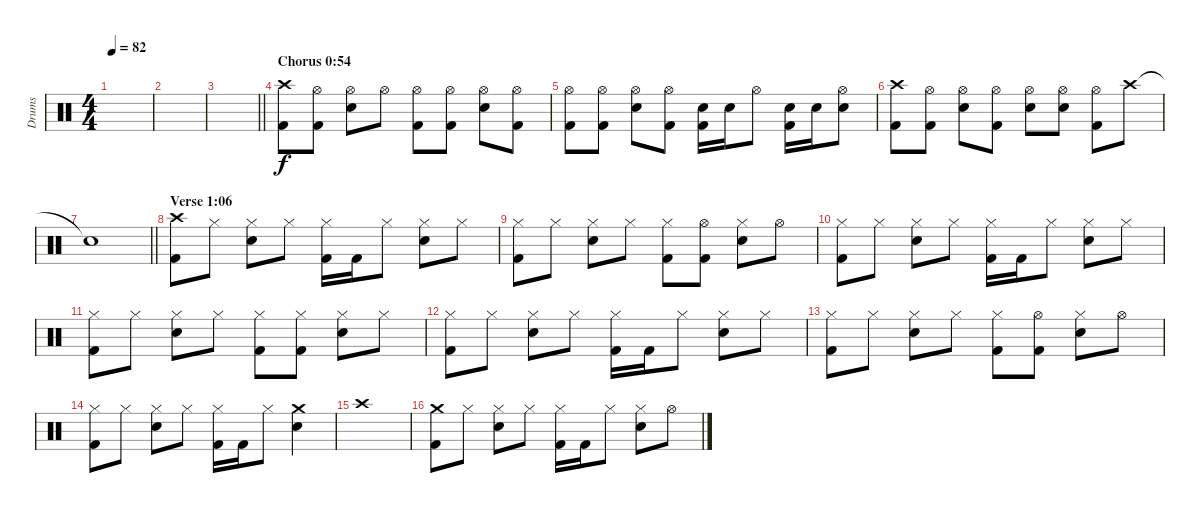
\track ("Drums" "Drums") {instrument percussion}
\staff {score}
\articulation defaults
\ts (4 4)
\tempo 82
\clef neutral
\ks c
|
|
\barLineRight lightlight
|
\section ("" "Chorus 0:54")
("Crash high (hit)" "Kick (hit) 2").8 ("Hi-Hat (open)" "Kick (hit) 2").8 ("Hi-Hat (open)" "Snare (hit) 2").8 "Hi-Hat (open)".8 ("Hi-Hat (open)" "Kick (hit) 2").8 ("Hi-Hat (open)" "Kick (hit) 2").8 ("Hi-Hat (open)" "Snare (hit) 2").8 ("Hi-Hat (open)" "Kick (hit) 2").8 |
("Hi-Hat (open)" "Kick (hit) 2").8 ("Hi-Hat (open)" "Kick (hit) 2").8 ("Hi-Hat (open)" "Snare (hit) 2").8 ("Hi-Hat (open)" "Kick (hit) 2").8 ("Snare (hit) 2" "Kick (hit) 2").16 "Snare (hit) 2".16 "Hi-Hat (open)".8 ("Snare (hit) 2" "Kick (hit) 2").16 "Snare (hit) 2".16 ("Hi-Hat (open)" "Snare (hit) 2").8 |
("Crash high (hit)" "Kick (hit) 2").8 ("Hi-Hat (open)" "Kick (hit) 2").8 ("Hi-Hat (open)" "Snare (hit) 2").8 ("Hi-Hat (open)" "Kick (hit) 2").8 ("Hi-Hat (open)" "Snare (hit) 2").8 ("Hi-Hat (open)" "Snare (hit) 2").8 ("Hi-Hat (open)" "Kick (hit) 2").8 "Crash high (hit)".8 |
\barLineRight lightlight "Snare (hit)"{t}.1
|
\section ("" "Verse 1:06")
("Crash high (hit)" "Kick (hit) 2").8 "Hi-Hat (closed)".8 ("Hi-Hat (closed)" "Snare (hit) 2").8 "Hi-Hat (closed)".8 ("Hi-Hat (closed)" "Kick (hit) 2").16 "Kick (hit) 2".16 "Hi-Hat (closed)".8 ("Hi-Hat (closed)" "Snare (hit) 2").8 "Hi-Hat (closed)".8 |
("Hi-Hat (closed)" "Kick (hit) 2").8 "Hi-Hat (closed)".8 ("Hi-Hat (closed)" "Snare (hit) 2").8 "Hi-Hat (closed)".8 ("Hi-Hat (closed)" "Kick (hit) 2").8 ("Hi-Hat (open)" "Kick (hit) 2").8 ("Hi-Hat (closed)" "Snare (hit) 2").8 "Hi-Hat (open)".8 |
("Hi-Hat (closed)" "Kick (hit) 2").8 "Hi-Hat (closed)".8 ("Hi-Hat (closed)" "Snare (hit) 2").8 "Hi-Hat (closed)".8 ("Hi-Hat (closed)" "Kick (hit) 2").16 "Kick (hit) 2".16 "Hi-Hat (closed)".8 ("Hi-Hat (closed)" "Snare (hit) 2").8 "Hi-Hat (closed)".8 |
("Hi-Hat (closed)" "Kick (hit) 2").8 "Hi-Hat (closed)".8 ("Hi-Hat (closed)" "Snare (hit) 2").8 "Hi-Hat (closed)".8 ("Hi-Hat (closed)" "Kick (hit) 2").8 ("Hi-Hat (closed)" "Kick (hit) 2").8 ("Hi-Hat (closed)" "Snare (hit) 2").8 "Hi-Hat (closed)".8 |
("Hi-Hat (closed)" "Kick (hit) 2").8 "Hi-Hat (closed)".8 ("Hi-Hat (closed)" "Snare (hit) 2").8 "Hi-Hat (closed)".8 ("Hi-Hat (closed)" "Kick (hit) 2").16 "Kick (hit) 2".16 "Hi-Hat (closed)".8 ("Hi-Hat (closed)" "Snare (hit) 2").8 "Hi-Hat (closed)".8 |
("Hi-Hat (closed)" "Kick (hit) 2").8 "Hi-Hat (closed)".8 ("Hi-Hat (closed)" "Snare (hit) 2").8 "Hi-Hat (closed)".8 ("Hi-Hat (closed)" "Kick (hit) 2").8 ("Hi-Hat (open)" "Kick (hit) 2").8 ("Hi-Hat (closed)" "Snare (hit) 2").8 "Hi-Hat (open)".8 |
("Hi-Hat (closed)" "Kick (hit) 2").8 "Hi-Hat (closed)".8 ("Hi-Hat (closed)" "Snare (hit) 2").8 "Hi-Hat (closed)".8 ("Hi-Hat (closed)" "Kick (hit) 2").16 "Kick (hit) 2".16 "Hi-Hat (closed)".8 ("Crash medium (hit)" "Snare (hit) 2").4 |
"Crash high (hit)".1 |
("Crash medium (hit)" "Kick (hit) 2").8 "Hi-Hat (closed)".8 ("Hi-Hat (closed)" "Snare (hit) 2").8 "Hi-Hat (closed)".8 ("Hi-Hat (closed)" "Kick (hit) 2").16 "Kick (hit) 2".16 "Hi-Hat (closed)".8 ("Hi-Hat (closed)" "Snare (hit) 2").8 "Hi-Hat (open)".8
